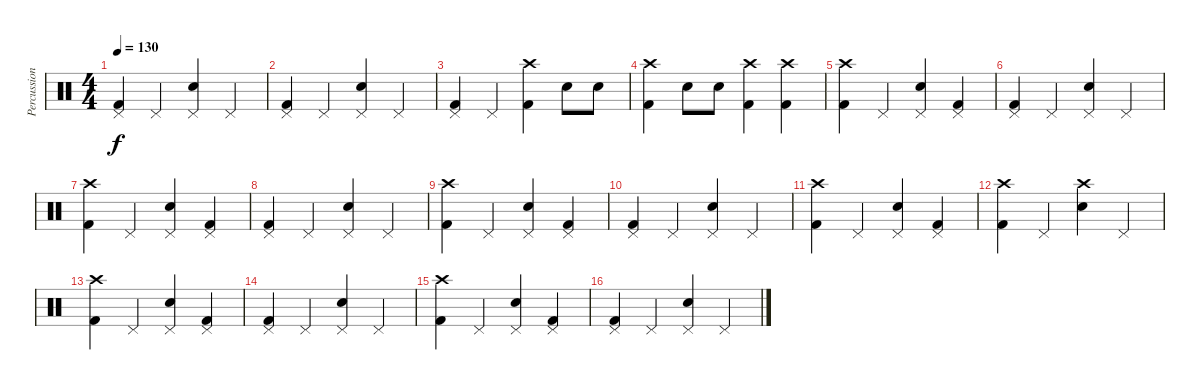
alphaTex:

\track ("Percussions" "Percussion") {instrument percussion}
\staff {score}
\articulation defaults
\ts (4 4)
\tempo 130
\clef neutral
\ks c
("Pedal Hi-Hat (hit)" "Kick (hit) 2").4{dy f} "Pedal Hi-Hat (hit)".4 ("Pedal Hi-Hat (hit)" "Snare (hit) 2").4 "Pedal Hi-Hat (hit)".4 |
("Pedal Hi-Hat (hit)" "Kick (hit) 2").4 "Pedal Hi-Hat (hit)".4 ("Pedal Hi-Hat (hit)" "Snare (hit) 2").4 "Pedal Hi-Hat (hit)".4 |
("Pedal Hi-Hat (hit)" "Kick (hit) 2").4 "Pedal Hi-Hat (hit)".4 ("Crash high (hit)" "Kick (hit) 2").4 "Snare (hit) 2".8 "Snare (hit) 2".8 |
("Crash high (hit)" "Kick (hit) 2").4 "Snare (hit) 2".8 "Snare (hit) 2".8 ("Crash high (hit)" "Kick (hit) 2").4 ("Crash high (hit)" "Kick (hit) 2").4 |
("Crash high (hit)" "Kick (hit) 2").4 "Pedal Hi-Hat (hit)".4 ("Pedal Hi-Hat (hit)" "Snare (hit) 2").4 ("Pedal Hi-Hat (hit)" "Kick (hit) 2").4 |
("Pedal Hi-Hat (hit)" "Kick (hit) 2").4 "Pedal Hi-Hat (hit)".4 ("Pedal Hi-Hat (hit)" "Snare (hit) 2").4 "Pedal Hi-Hat (hit)".4 |
("Crash high (hit)" "Kick (hit) 2").4 "Pedal Hi-Hat (hit)".4 ("Pedal Hi-Hat (hit)" "Snare (hit) 2").4 ("Pedal Hi-Hat (hit)" "Kick (hit) 2").4 |
("Pedal Hi-Hat (hit)" "Kick (hit) 2").4 "Pedal Hi-Hat (hit)".4 ("Pedal Hi-Hat (hit)" "Snare (hit) 2").4 "Pedal Hi-Hat (hit)".4 |
("Crash high (hit)" "Kick (hit) 2").4 "Pedal Hi-Hat (hit)".4 ("Pedal Hi-Hat (hit)" "Snare (hit) 2").4 ("Pedal Hi-Hat (hit)" "Kick (hit) 2").4 |
("Pedal Hi-Hat (hit)" "Kick (hit) 2").4 "Pedal Hi-Hat (hit)".4 ("Pedal Hi-Hat (hit)" "Snare (hit) 2").4 "Pedal Hi-Hat (hit)".4 |
("Crash high (hit)" "Kick (hit) 2").4 "Pedal Hi-Hat (hit)".4 ("Pedal Hi-Hat (hit)" "Snare (hit) 2").4 ("Pedal Hi-Hat (hit)" "Kick (hit) 2").4 |
("Crash high (hit)" "Kick (hit) 2").4 "Pedal Hi-Hat (hit)".4 ("Crash high (hit)" "Snare (hit) 2").4 "Pedal Hi-Hat (hit)".4 |
("Crash high (hit)" "Kick (hit) 2").4 "Pedal Hi-Hat (hit)".4 ("Pedal Hi-Hat (hit)" "Snare (hit) 2").4 ("Pedal Hi-Hat (hit)" "Kick (hit) 2").4 |
("Pedal Hi-Hat (hit)" "Kick (hit) 2").4 "Pedal Hi-Hat (hit)".4 ("Pedal Hi-Hat (hit)" "Snare (hit) 2").4 "Pedal Hi-Hat (hit)".4 |
("Crash high (hit)" "Kick (hit) 2").4 "Pedal Hi-Hat (hit)".4 ("Pedal Hi-Hat (hit)" "Snare (hit) 2").4 ("Pedal Hi-Hat (hit)" "Kick (hit) 2").4 |
("Pedal Hi-Hat (hit)" "Kick (hit) 2").4 "Pedal Hi-Hat (hit)".4 ("Pedal Hi-Hat (hit)" "Snare (hit) 2").4 "Pedal Hi-Hat (hit)".4
